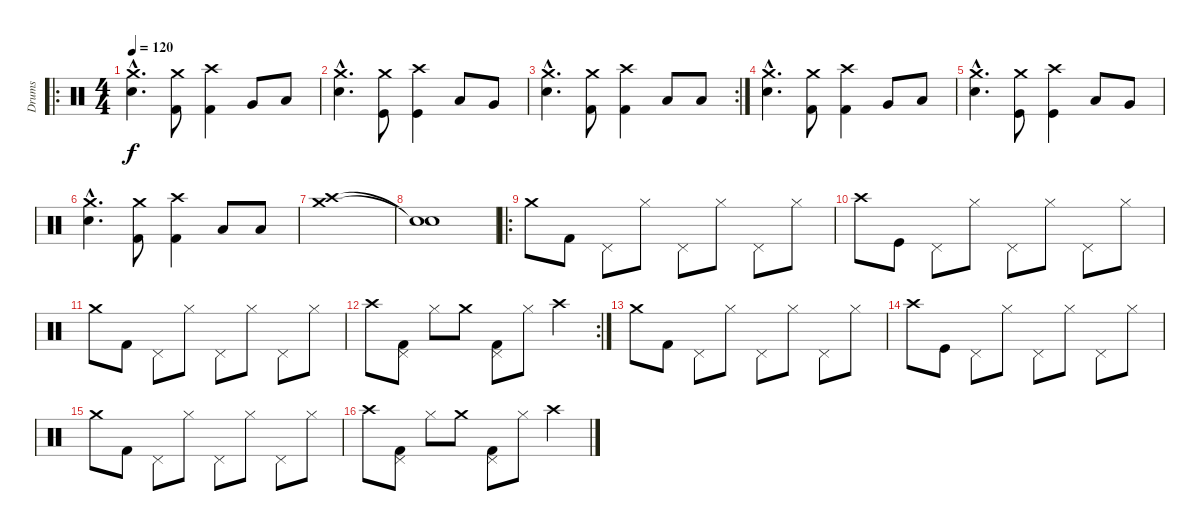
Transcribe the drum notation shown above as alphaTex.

\track ("Drums" "Drums") {instrument percussion}
\staff {score}
\articulation defaults
\ro
\ts (4 4)
\tempo 120
\clef neutral
\ks c
("Electric Snare (hit)"{hac} "Crash medium (hit)"{hac}).4{d dy f} ("Kick (hit) 2" "Crash medium (hit)").8 ("Kick (hit) 2" "Crash high (hit)").4 "Very Low Tom (hit)".8 "Low Tom (hit)".8 |
("Electric Snare (hit)"{hac} "Crash medium (hit)"{hac}).4{d} ("Kick (hit)" "Crash medium (hit)").8 ("Kick (hit)" "Crash high (hit)").4 "Low Tom (hit)".8 "Very Low Tom (hit)".8 |
\rc 2
("Electric Snare (hit)"{hac} "Crash medium (hit)"{hac}).4{d} ("Kick (hit) 2" "Crash medium (hit)").8 ("Kick (hit) 2" "Crash high (hit)").4 "Low Tom (hit)".8 "Low Tom (hit)".8 |
("Electric Snare (hit)"{hac} "Crash medium (hit)"{hac}).4{d} ("Kick (hit) 2" "Crash medium (hit)").8 ("Kick (hit) 2" "Crash high (hit)").4 "Very Low Tom (hit)".8 "Low Tom (hit)".8 |
("Electric Snare (hit)"{hac} "Crash medium (hit)"{hac}).4{d} ("Kick (hit)" "Crash medium (hit)").8 ("Kick (hit)" "Crash high (hit)").4 "Low Tom (hit)".8 "Very Low Tom (hit)".8 |
("Electric Snare (hit)"{hac} "Crash medium (hit)"{hac}).4{d} ("Kick (hit) 2" "Crash medium (hit)").8 ("Kick (hit) 2" "Crash high (hit)").4 "Low Tom (hit)".8 "Low Tom (hit)".8 |
("Crash high (hit)" "Crash medium (hit)").1 |
("Snare (hit)"{t} "Snare (hit)"{t}).1 |
\ro "Crash medium (hit)".8 "Kick (hit) 2".8 "Pedal Hi-Hat (hit)".8 "Hi-Hat (closed)".8 "Pedal Hi-Hat (hit)".8 "Hi-Hat (closed)".8 "Pedal Hi-Hat (hit)".8 "Hi-Hat (closed)".8
|
"Crash high (hit)".8 "Kick (hit)".8 "Pedal Hi-Hat (hit)".8 "Hi-Hat (closed)".8 "Pedal Hi-Hat (hit)".8 "Hi-Hat (closed)".8 "Pedal Hi-Hat (hit)".8 "Hi-Hat (closed)".8 |
"Crash medium (hit)".8 "Kick (hit) 2".8 "Pedal Hi-Hat (hit)".8 "Hi-Hat (closed)".8 "Pedal Hi-Hat (hit)".8 "Hi-Hat (closed)".8 "Pedal Hi-Hat (hit)".8 "Hi-Hat (closed)".8 |
\rc 2 "Crash high (hit)".8
("Kick (hit) 2" "Pedal Hi-Hat (hit)").8 "Hi-Hat (closed)".8 "Crash medium (hit)".8 ("Kick (hit) 2" "Pedal Hi-Hat (hit)").8 "Hi-Hat (closed)".8 "Crash high (hit)".4 |
"Crash medium (hit)".8 "Kick (hit) 2".8 "Pedal Hi-Hat (hit)".8 "Hi-Hat (closed)".8 "Pedal Hi-Hat (hit)".8 "Hi-Hat (closed)".8 "Pedal Hi-Hat (hit)".8 "Hi-Hat (closed)".8 |
"Crash high (hit)".8 "Kick (hit)".8 "Pedal Hi-Hat (hit)".8 "Hi-Hat (closed)".8 "Pedal Hi-Hat (hit)".8 "Hi-Hat (closed)".8 "Pedal Hi-Hat (hit)".8 "Hi-Hat (closed)".8 |
"Crash medium (hit)".8 "Kick (hit) 2".8 "Pedal Hi-Hat (hit)".8 "Hi-Hat (closed)".8 "Pedal Hi-Hat (hit)".8 "Hi-Hat (closed)".8 "Pedal Hi-Hat (hit)".8 "Hi-Hat (closed)".8 |
"Crash high (hit)".8 ("Kick (hit) 2" "Pedal Hi-Hat (hit)").8 "Hi-Hat (closed)".8 "Crash medium (hit)".8 ("Kick (hit) 2" "Pedal Hi-Hat (hit)").8 "Hi-Hat (closed)".8 "Crash high (hit)".4
